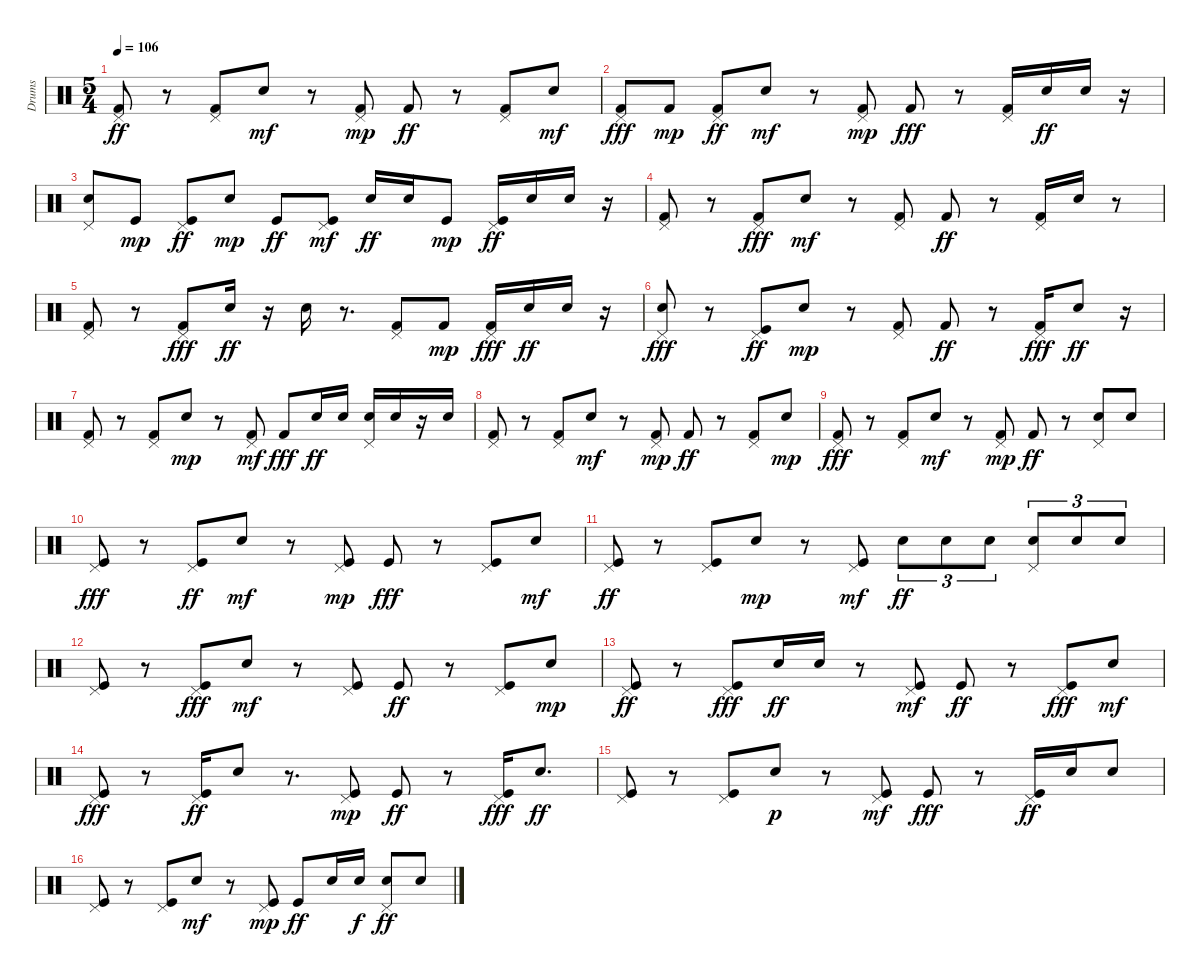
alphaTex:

\track ("Drums" "Drums") {instrument percussion}
\staff {score}
\articulation defaults
\ts (5 4)
\tempo 106
\clef neutral
\ks c
("Pedal Hi-Hat (hit)" "Kick (hit) 2").8{dy ff} r.8 ("Pedal Hi-Hat (hit)" "Kick (hit) 2").8 "Electric Snare (hit)".8{dy mf} r.8 ("Pedal Hi-Hat (hit)" "Kick (hit) 2").8{dy mp} "Kick (hit) 2".8{dy ff} r.8 ("Pedal Hi-Hat (hit)" "Kick (hit) 2").8 "Electric Snare (hit)".8{dy mf} |
("Pedal Hi-Hat (hit)" "Kick (hit) 2").8{dy fff} "Kick (hit) 2".8{dy mp} ("Pedal Hi-Hat (hit)" "Kick (hit) 2").8{dy ff} "Electric Snare (hit)".8{dy mf} r.8 ("Pedal Hi-Hat (hit)" "Kick (hit) 2").8{dy mp} "Kick (hit) 2".8{dy fff} r.8 ("Pedal Hi-Hat (hit)" "Kick (hit) 2").16 "Electric Snare (hit)".16{dy ff} "Electric Snare (hit)".16 r.16 |
("Pedal Hi-Hat (hit)" "Electric Snare (hit)").8 "Kick (hit)".8{dy mp} ("Pedal Hi-Hat (hit)" "Kick (hit)").8{dy ff} "Electric Snare (hit)".8{dy mp} "Kick (hit)".8{dy ff} ("Pedal Hi-Hat (hit)" "Kick (hit)").8{dy mf} "Electric Snare (hit)".16{dy ff} "Electric Snare (hit)".16 "Kick (hit)".8{dy mp} ("Kick (hit)" "Pedal Hi-Hat (hit)").16{dy ff} "Electric Snare (hit)".16 "Electric Snare (hit)".16 r.16 |
("Kick (hit) 2" "Pedal Hi-Hat (hit)").8 r.8 ("Kick (hit) 2" "Pedal Hi-Hat (hit)").8{dy fff} "Electric Snare (hit)".8{dy mf} r.8 ("Kick (hit) 2" "Pedal Hi-Hat (hit)").8 "Kick (hit) 2".8{dy ff} r.8 ("Kick (hit) 2" "Pedal Hi-Hat (hit)").16 "Electric Snare (hit)".16 r.8 |
("Pedal Hi-Hat (hit)" "Kick (hit) 2").8 r.8 ("Pedal Hi-Hat (hit)" "Kick (hit) 2").8{dy fff} "Electric Snare (hit)".16{dy ff} r.16 "Electric Snare (hit)".16 r.8{d} ("Pedal Hi-Hat (hit)" "Kick (hit) 2").8 "Kick (hit) 2".8{dy mp} ("Pedal Hi-Hat (hit)" "Kick (hit) 2").16{dy fff} "Electric Snare (hit)".16{dy ff} "Electric Snare (hit)".16 r.16 |
("Pedal Hi-Hat (hit)" "Electric Snare (hit)").8{dy fff} r.8 ("Pedal Hi-Hat (hit)" "Kick (hit)").8{dy ff} "Electric Snare (hit)".8{dy mp} r.8 ("Pedal Hi-Hat (hit)" "Kick (hit) 2").8 "Kick (hit) 2".8{dy ff} r.8 ("Pedal Hi-Hat (hit)" "Kick (hit) 2").16{dy fff} "Electric Snare (hit)".8{dy ff} r.16 |
("Pedal Hi-Hat (hit)" "Kick (hit) 2").8 r.8 ("Pedal Hi-Hat (hit)" "Kick (hit) 2").8 "Electric Snare (hit)".8{dy mp} r.8 ("Pedal Hi-Hat (hit)" "Kick (hit) 2").8{dy mf} "Kick (hit) 2".8{dy fff} "Electric Snare (hit)".16{dy ff} "Electric Snare (hit)".16 ("Electric Snare (hit)" "Pedal Hi-Hat (hit)").16 "Electric Snare (hit)".16 r.16 "Electric Snare (hit)".16 |
("Pedal Hi-Hat (hit)" "Kick (hit) 2").8 r.8 ("Pedal Hi-Hat (hit)" "Kick (hit) 2").8 "Electric Snare (hit)".8{dy mf} r.8 ("Pedal Hi-Hat (hit)" "Kick (hit) 2").8{dy mp} "Kick (hit) 2".8{dy ff} r.8 ("Pedal Hi-Hat (hit)" "Kick (hit) 2").8 "Electric Snare (hit)".8{dy mp} |
("Pedal Hi-Hat (hit)" "Kick (hit) 2").8{dy fff} r.8 ("Pedal Hi-Hat (hit)" "Kick (hit) 2").8 "Electric Snare (hit)".8{dy mf} r.8 ("Pedal Hi-Hat (hit)" "Kick (hit) 2").8{dy mp} "Kick (hit) 2".8{dy ff} r.8 ("Pedal Hi-Hat (hit)" "Electric Snare (hit)").8 "Electric Snare (hit)".8 |
("Pedal Hi-Hat (hit)" "Kick (hit)").8{dy fff} r.8 ("Pedal Hi-Hat (hit)" "Kick (hit)").8{dy ff} "Electric Snare (hit)".8{dy mf} r.8 ("Pedal Hi-Hat (hit)" "Kick (hit)").8{dy mp} "Kick (hit)".8{dy fff} r.8 ("Pedal Hi-Hat (hit)" "Kick (hit)").8 "Electric Snare (hit)".8{dy mf} |
("Pedal Hi-Hat (hit)" "Kick (hit)").8{dy ff} r.8 ("Pedal Hi-Hat (hit)" "Kick (hit)").8 "Electric Snare (hit)".8{dy mp} r.8 ("Pedal Hi-Hat (hit)" "Kick (hit)").8{dy mf} "Electric Snare (hit)".8{tu (3 2) dy ff} "Electric Snare (hit)".8{tu (3 2)} "Electric Snare (hit)".8{tu (3 2)} ("Pedal Hi-Hat (hit)" "Electric Snare (hit)").8{tu (3 2)} "Electric Snare (hit)".8{tu (3 2)} "Electric Snare (hit)".8{tu (3 2)} |
("Pedal Hi-Hat (hit)" "Kick (hit)").8 r.8 ("Pedal Hi-Hat (hit)" "Kick (hit)").8{dy fff} "Electric Snare (hit)".8{dy mf} r.8 ("Pedal Hi-Hat (hit)" "Kick (hit)").8 "Kick (hit)".8{dy ff} r.8 ("Pedal Hi-Hat (hit)" "Kick (hit)").8 "Electric Snare (hit)".8{dy mp} |
("Pedal Hi-Hat (hit)" "Kick (hit)").8{dy ff} r.8 ("Pedal Hi-Hat (hit)" "Kick (hit)").8{dy fff} "Electric Snare (hit)".16{dy ff} "Electric Snare (hit)".16 r.8 ("Pedal Hi-Hat (hit)" "Kick (hit)").8{dy mf} "Kick (hit)".8{dy ff} r.8 ("Pedal Hi-Hat (hit)" "Kick (hit)").8{dy fff} "Electric Snare (hit)".8{dy mf} |
("Pedal Hi-Hat (hit)" "Kick (hit)").8{dy fff} r.8 ("Pedal Hi-Hat (hit)" "Kick (hit)").16{dy ff} "Electric Snare (hit)".8 r.8{d} ("Pedal Hi-Hat (hit)" "Kick (hit)").8{dy mp} "Kick (hit)".8{dy ff} r.8 ("Pedal Hi-Hat (hit)" "Kick (hit)").16{dy fff} "Electric Snare (hit)".8{d dy ff} |
("Pedal Hi-Hat (hit)" "Kick (hit)").8 r.8 ("Pedal Hi-Hat (hit)" "Kick (hit)").8 "Electric Snare (hit)".8{dy p} r.8 ("Pedal Hi-Hat (hit)" "Kick (hit)").8{dy mf} "Kick (hit)".8{dy fff} r.8 ("Pedal Hi-Hat (hit)" "Kick (hit)").16{dy ff} "Snare (hit) 2".16 "Electric Snare (hit)".8 |
("Pedal Hi-Hat (hit)" "Kick (hit)").8 r.8 ("Pedal Hi-Hat (hit)" "Kick (hit)").8 "Electric Snare (hit)".8{dy mf} r.8 ("Pedal Hi-Hat (hit)" "Kick (hit)").8{dy mp} "Kick (hit)".8{dy ff} "Electric Snare (hit)".16 "Electric Snare (hit)".16{dy f} ("Pedal Hi-Hat (hit)" "Electric Snare (hit)").8{dy ff} "Electric Snare (hit)".8
